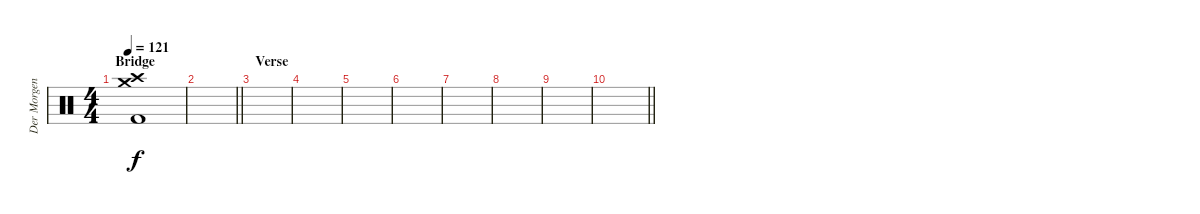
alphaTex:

\track ("Der Morgenstern" "Der Morgen") {instrument percussion}
\staff {score}
\articulation defaults
\ts (4 4)
\section ("" "Bridge")
\tempo 121
\clef neutral
\ks c
("Crash high (hit)" "Crash medium (hit)" "Kick (hit) 2").1{dy f} |
\barLineRight lightlight
|
\section ("" "Verse")
|
|
|
|
|
|
|
\barLineRight lightlight
